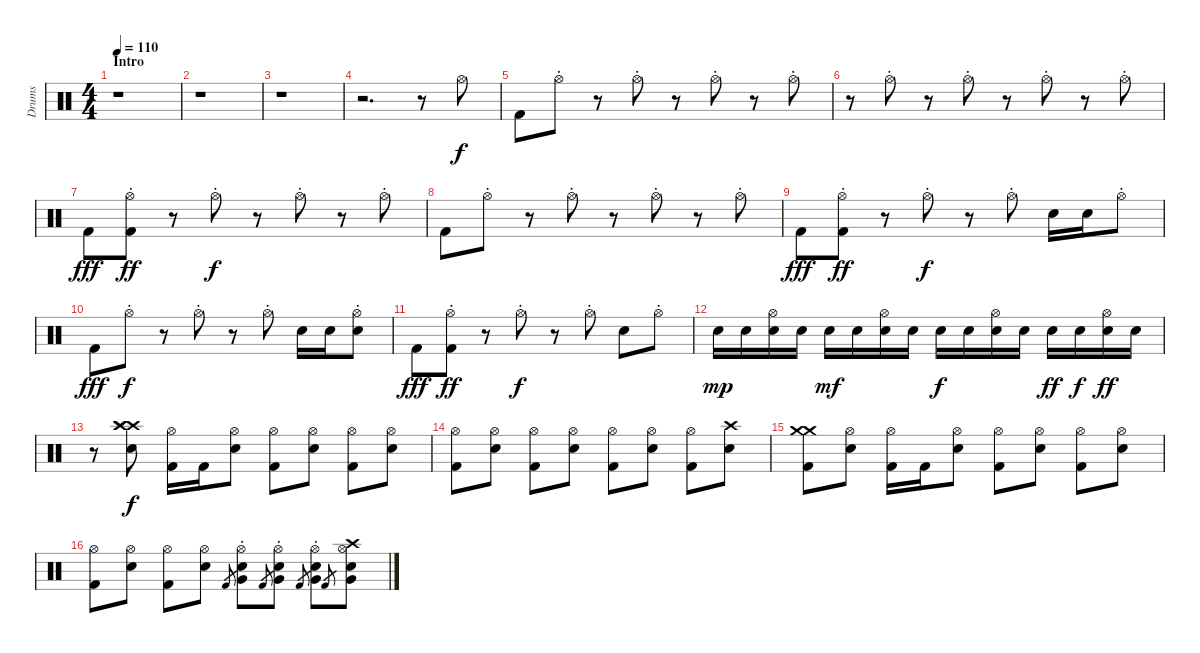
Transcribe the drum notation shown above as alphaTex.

\track ("Drums" "Drums") {instrument percussion}
\staff {score}
\articulation defaults
\ts (4 4)
\section ("" "Intro")
\tempo 110
\clef neutral
\ks c
r.1{dy f} |
r.1 |
r.1 |
r.2{d} r.8 "Hi-Hat (open)".8 |
"Kick (hit) 2".8 "Hi-Hat (open)"{st}.8 r.8 "Hi-Hat (open)"{st}.8 r.8 "Hi-Hat (open)"{st}.8 r.8 "Hi-Hat (open)"{st}.8 |
r.8 "Hi-Hat (open)"{st}.8 r.8 "Hi-Hat (open)"{st}.8 r.8 "Hi-Hat (open)"{st}.8 r.8 "Hi-Hat (open)"{st}.8 |
"Kick (hit) 2".8{dy fff} ("Hi-Hat (open)"{st} "Kick (hit) 2").8{dy ff} r.8 "Hi-Hat (open)"{st}.8{dy f} r.8 "Hi-Hat (open)"{st}.8 r.8 "Hi-Hat (open)"{st}.8 |
"Kick (hit) 2".8 "Hi-Hat (open)"{st}.8 r.8 "Hi-Hat (open)"{st}.8 r.8 "Hi-Hat (open)"{st}.8 r.8 "Hi-Hat (open)"{st}.8 |
"Kick (hit) 2".8{dy fff} ("Hi-Hat (open)"{st} "Kick (hit) 2").8{dy ff} r.8 "Hi-Hat (open)"{st}.8{dy f} r.8 "Hi-Hat (open)"{st}.8 "Snare (hit) 2".16 "Snare (hit) 2".16 "Hi-Hat (open)"{st}.8 |
"Kick (hit) 2".8{dy fff} "Hi-Hat (open)"{st}.8{dy f} r.8 "Hi-Hat (open)"{st}.8 r.8 "Hi-Hat (open)"{st}.8 "Snare (hit) 2".16 "Snare (hit) 2".16 ("Hi-Hat (open)"{st} "Snare (hit) 2").8 |
"Kick (hit) 2".8{dy fff} ("Hi-Hat (open)"{st} "Kick (hit) 2").8{dy ff} r.8 "Hi-Hat (open)"{st}.8{dy f} r.8 "Hi-Hat (open)"{st}.8 "Snare (hit) 2".8 "Hi-Hat (open)"{st}.8 |
"Snare (hit) 2".16{dy mp} "Snare (hit) 2".16 ("Hi-Hat (open)" "Snare (hit) 2").16 "Snare (hit) 2".16 "Snare (hit) 2".16{dy mf} "Snare (hit) 2".16 ("Hi-Hat (open)" "Snare (hit) 2").16 "Snare (hit) 2".16 "Snare (hit) 2".16{dy f} "Snare (hit) 2".16 ("Hi-Hat (open)" "Snare (hit) 2").16 "Snare (hit) 2".16 "Snare (hit) 2".16{dy ff} "Snare (hit) 2".16{dy f} ("Hi-Hat (open)" "Snare (hit) 2").16{dy ff} "Snare (hit) 2".16 |
r.8 ("Crash high (hit)" "Crash high (hit)" "Crash high (hit)" "Snare (hit) 2").8{dy f} ("Hi-Hat (open)" "Kick (hit) 2").16 "Kick (hit) 2".16 ("Hi-Hat (open)" "Snare (hit) 2").8 ("Hi-Hat (open)" "Kick (hit) 2").8 ("Hi-Hat (open)" "Snare (hit) 2").8 ("Hi-Hat (open)" "Kick (hit) 2").8 ("Hi-Hat (open)" "Snare (hit) 2").8 |
("Hi-Hat (open)" "Kick (hit) 2").8 ("Hi-Hat (open)" "Snare (hit) 2").8 ("Hi-Hat (open)" "Kick (hit) 2").8 ("Hi-Hat (open)" "Snare (hit) 2").8 ("Hi-Hat (open)" "Kick (hit) 2").8 ("Hi-Hat (open)" "Snare (hit) 2").8 ("Hi-Hat (open)" "Kick (hit) 2").8 ("Crash high (hit)" "Snare (hit) 2").8 |
("Crash medium (hit)" "Crash medium (hit)" "Kick (hit) 2").8 ("Hi-Hat (open)" "Snare (hit) 2").8 ("Hi-Hat (open)" "Kick (hit) 2").16 "Kick (hit) 2".16 ("Hi-Hat (open)" "Snare (hit) 2").8 ("Hi-Hat (open)" "Kick (hit) 2").8 ("Hi-Hat (open)" "Snare (hit) 2").8 ("Hi-Hat (open)" "Kick (hit) 2").8 ("Hi-Hat (open)" "Snare (hit) 2").8 |
("Hi-Hat (open)" "Kick (hit) 2").8 ("Hi-Hat (open)" "Snare (hit) 2").8 ("Hi-Hat (open)" "Kick (hit) 2").8 ("Hi-Hat (open)" "Snare (hit) 2").8 "Kick (hit) 2".8{gr} ("Hi-Hat (open)"{st} "Snare (hit) 2" "Very Low Tom (hit)").8 "Kick (hit) 2".8{gr} ("Hi-Hat (open)"{st} "Snare (hit) 2" "Very Low Tom (hit)").8 "Kick (hit) 2".8{gr} ("Hi-Hat (open)"{st} "Snare (hit) 2" "Very Low Tom (hit)").8 "Kick (hit) 2".8{gr} ("Crash high (hit)" "Hi-Hat (open)" "Snare (hit) 2" "Very Low Tom (hit)").8
